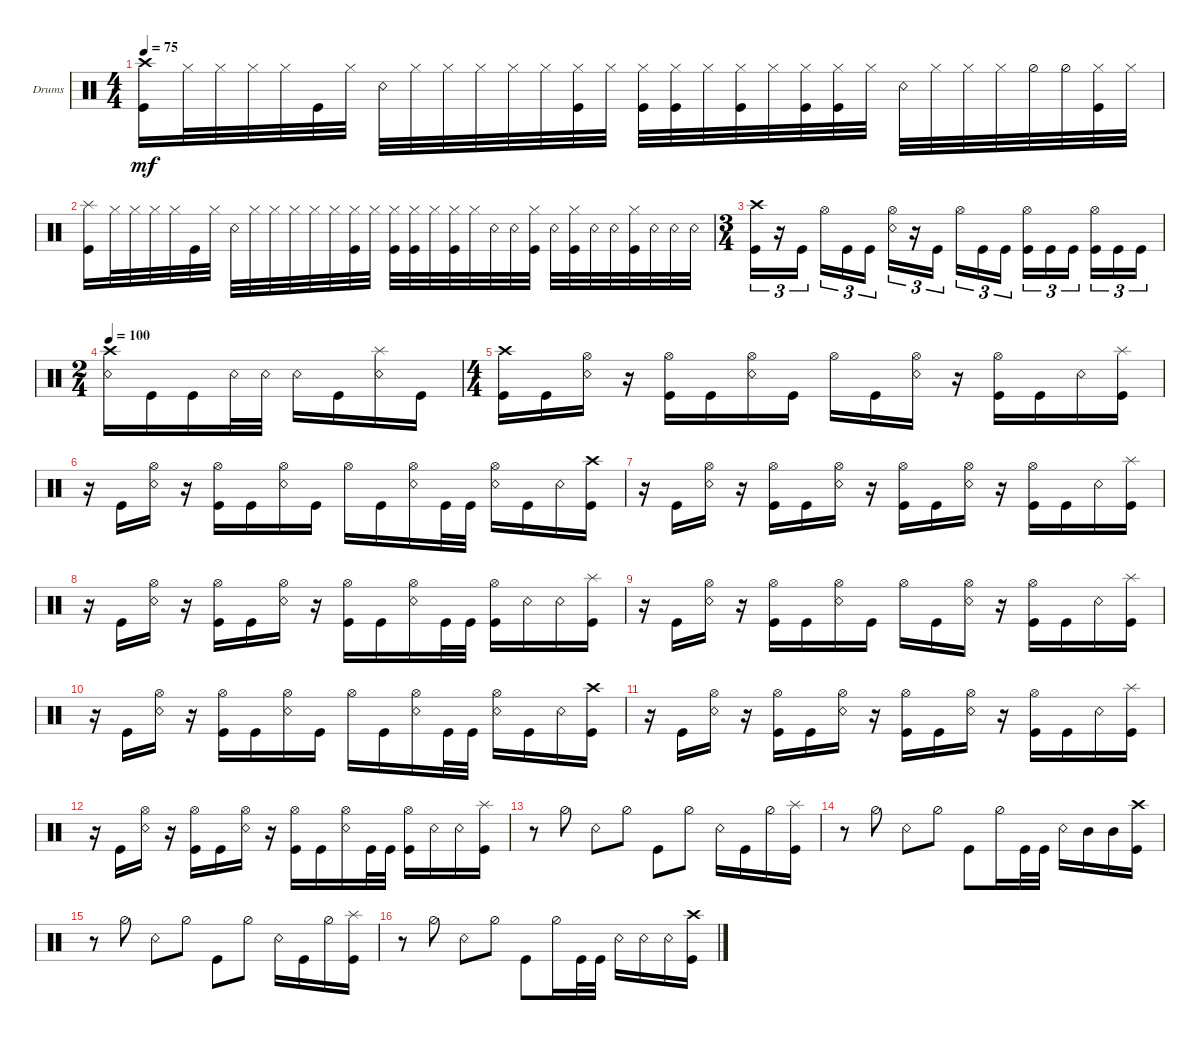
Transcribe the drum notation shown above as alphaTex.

\defaultSystemsLayout 4
\bracketExtendMode groupsimilarinstruments
\firstSystemTrackNameOrientation horizontal
\otherSystemsTrackNameOrientation horizontal
\track ("Drumkit" "Drums") {instrument percussion}
\staff {score}
\articulation defaults
\ts (4 4)
\tempo 75
\clef neutral
\ks c
("Crash high (hit)" "Kick (hit)").16{dy mf} "Hi-Hat (closed)".32 "Hi-Hat (closed)".32 "Hi-Hat (closed)".32 "Hi-Hat (closed)".32 "Kick (hit)".32 "Hi-Hat (closed)".32 "Snare (rim shot)".32 "Hi-Hat (closed)".32 "Hi-Hat (closed)".32 "Hi-Hat (closed)".32 "Hi-Hat (closed)".32 "Hi-Hat (closed)".32 ("Hi-Hat (closed)" "Kick (hit)").32 "Hi-Hat (closed)".32 ("Hi-Hat (closed)" "Kick (hit)").32 ("Hi-Hat (closed)" "Kick (hit)").32 "Hi-Hat (closed)".32 ("Hi-Hat (closed)" "Kick (hit)").32 "Hi-Hat (closed)".32 ("Hi-Hat (closed)" "Kick (hit)").32 ("Hi-Hat (closed)" "Kick (hit)").32 "Hi-Hat (closed)".32 "Snare (rim shot)".32 "Hi-Hat (closed)".32 "Hi-Hat (closed)".32 "Hi-Hat (closed)".32 "Hi-Hat (half)".32 "Hi-Hat (half)".32 ("Hi-Hat (closed)" "Kick (hit)").32 "Hi-Hat (closed)".32 |
("Kick (hit)" "Splash (hit)").16 "Hi-Hat (closed)".32 "Hi-Hat (closed)".32 "Hi-Hat (closed)".32 "Hi-Hat (closed)".32 "Kick (hit)".32 "Hi-Hat (closed)".32 "Snare (rim shot)".32 "Hi-Hat (closed)".32 "Hi-Hat (closed)".32 "Hi-Hat (closed)".32 "Hi-Hat (closed)".32 "Hi-Hat (closed)".32 ("Hi-Hat (closed)" "Kick (hit)").32 "Hi-Hat (closed)".32 ("Hi-Hat (closed)" "Kick (hit)").32 ("Hi-Hat (closed)" "Kick (hit)").32 "Hi-Hat (closed)".32 ("Hi-Hat (closed)" "Kick (hit)").32 "Hi-Hat (closed)".32 "Snare (rim shot)".32 "Snare (rim shot)".32 ("Hi-Hat (closed)" "Kick (hit)").32 "Snare (rim shot)".32 ("Hi-Hat (closed)" "Kick (hit)").32 "Snare (rim shot)".32 "Snare (rim shot)".32 ("Hi-Hat (closed)" "Kick (hit)").32 "Snare (rim shot)".32 "Snare (rim shot)".32 "Snare (rim shot)".32 |
\ts (3 4)
("Kick (hit)" "Crash high (hit)").16{tu (3 2)} r.16{tu (3 2)} "Kick (hit)".16{tu (3 2)} "Hi-Hat (open)".16{tu (3 2)} "Kick (hit)".16{tu (3 2)} "Kick (hit)".16{tu (3 2)} ("Snare (rim shot)" "Hi-Hat (open)").16{tu (3 2)} r.16{tu (3 2)} "Kick (hit)".16{tu (3 2)} "Hi-Hat (open)".16{tu (3 2)} "Kick (hit)".16{tu (3 2)} "Kick (hit)".16{tu (3 2)} ("Kick (hit)" "Hi-Hat (open)").16{tu (3 2)} "Kick (hit)".16{tu (3 2)} "Kick (hit)".16{tu (3 2)} ("Hi-Hat (open)" "Kick (hit)").16{tu (3 2)} "Kick (hit)".16{tu (3 2)} "Kick (hit)".16{tu (3 2)} |
\ts (2 4)
\tempo 100
("Snare (rim shot)" "Crash high (hit)").16 "Kick (hit)".16 "Kick (hit)".16 "Snare (rim shot)".32 "Snare (rim shot)".32 "Snare (rim shot)".16 "Kick (hit)".16 ("Snare (rim shot)" "Splash (hit)").16 "Kick (hit)".16 |
\ts (4 4)
("Kick (hit)" "Crash high (hit)").16 "Kick (hit)".16 ("Snare (rim shot)" "Hi-Hat (open)").16 r.16 ("Kick (hit)" "Hi-Hat (open)").16 "Kick (hit)".16 ("Hi-Hat (open)" "Snare (rim shot)").16 "Kick (hit)".16 "Hi-Hat (open)".16 "Kick (hit)".16 ("Snare (rim shot)" "Hi-Hat (open)").16 r.16 ("Hi-Hat (open)" "Kick (hit)").16 "Kick (hit)".16 "Snare (rim shot)".16 ("Kick (hit)" "Splash (hit)").16 |
r.16 "Kick (hit)".16 ("Snare (rim shot)" "Hi-Hat (open)").16 r.16 ("Kick (hit)" "Hi-Hat (open)").16 "Kick (hit)".16 ("Snare (rim shot)" "Hi-Hat (open)").16 "Kick (hit)".16 "Hi-Hat (open)".16 "Kick (hit)".16 ("Snare (rim shot)" "Hi-Hat (open)").16 "Kick (hit)".32 "Kick (hit)".32 ("Snare (rim shot)" "Hi-Hat (open)").16 "Kick (hit)".16 "Snare (rim shot)".16 ("Kick (hit)" "Crash high (hit)").16 |
r.16 "Kick (hit)".16 ("Snare (rim shot)" "Hi-Hat (open)").16 r.16 ("Kick (hit)" "Hi-Hat (open)").16 "Kick (hit)".16 ("Snare (rim shot)" "Hi-Hat (open)").16 r.16 ("Kick (hit)" "Hi-Hat (open)").16 "Kick (hit)".16 ("Snare (rim shot)" "Hi-Hat (open)").16 r.16 ("Kick (hit)" "Hi-Hat (open)").16 "Kick (hit)".16 "Snare (rim shot)".16 ("Kick (hit)" "Splash (hit)").16 |
r.16 "Kick (hit)".16 ("Snare (rim shot)" "Hi-Hat (open)").16 r.16 ("Kick (hit)" "Hi-Hat (open)").16 "Kick (hit)".16 ("Snare (rim shot)" "Hi-Hat (open)").16 r.16 ("Kick (hit)" "Hi-Hat (open)").16 "Kick (hit)".16 ("Snare (rim shot)" "Hi-Hat (open)").16 "Kick (hit)".32 "Kick (hit)".32 ("Kick (hit)" "Hi-Hat (open)").16 "Snare (rim shot)".16 "Snare (rim shot)".16 ("Kick (hit)" "Splash (hit)").16 |
r.16 "Kick (hit)".16 ("Snare (rim shot)" "Hi-Hat (open)").16 r.16 ("Kick (hit)" "Hi-Hat (open)").16 "Kick (hit)".16 ("Hi-Hat (open)" "Snare (rim shot)").16 "Kick (hit)".16 "Hi-Hat (open)".16 "Kick (hit)".16 ("Snare (rim shot)" "Hi-Hat (open)").16 r.16 ("Hi-Hat (open)" "Kick (hit)").16 "Kick (hit)".16 "Snare (rim shot)".16 ("Kick (hit)" "Splash (hit)").16 |
r.16 "Kick (hit)".16 ("Snare (rim shot)" "Hi-Hat (open)").16 r.16 ("Kick (hit)" "Hi-Hat (open)").16 "Kick (hit)".16 ("Snare (rim shot)" "Hi-Hat (open)").16 "Kick (hit)".16 "Hi-Hat (open)".16 "Kick (hit)".16 ("Snare (rim shot)" "Hi-Hat (open)").16 "Kick (hit)".32 "Kick (hit)".32 ("Snare (rim shot)" "Hi-Hat (open)").16 "Kick (hit)".16 "Snare (rim shot)".16 ("Kick (hit)" "Crash high (hit)").16 |
r.16 "Kick (hit)".16 ("Snare (rim shot)" "Hi-Hat (open)").16 r.16 ("Kick (hit)" "Hi-Hat (open)").16 "Kick (hit)".16 ("Snare (rim shot)" "Hi-Hat (open)").16 r.16 ("Kick (hit)" "Hi-Hat (open)").16 "Kick (hit)".16 ("Snare (rim shot)" "Hi-Hat (open)").16 r.16 ("Kick (hit)" "Hi-Hat (open)").16 "Kick (hit)".16 "Snare (rim shot)".16 ("Kick (hit)" "Splash (hit)").16 |
r.16 "Kick (hit)".16 ("Snare (rim shot)" "Hi-Hat (open)").16 r.16 ("Kick (hit)" "Hi-Hat (open)").16 "Kick (hit)".16 ("Snare (rim shot)" "Hi-Hat (open)").16 r.16 ("Kick (hit)" "Hi-Hat (open)").16 "Kick (hit)".16 ("Snare (rim shot)" "Hi-Hat (open)").16 "Kick (hit)".32 "Kick (hit)".32 ("Kick (hit)" "Hi-Hat (open)").16 "Snare (rim shot)".16 "Snare (rim shot)".16 ("Kick (hit)" "Splash (hit)").16 |
r.8 "Hi-Hat (half)".8 "Snare (rim shot)".8 "Hi-Hat (half)".8 "Kick (hit)".8 "Hi-Hat (half)".8 "Snare (rim shot)".16 "Kick (hit)".16 "Hi-Hat (half)".16 ("Kick (hit)" "Splash (hit)").16 |
r.8 "Hi-Hat (half)".8 "Snare (rim shot)".8 "Hi-Hat (half)".8 "Kick (hit)".8 "Hi-Hat (half)".16 "Kick (hit)".32 "Kick (hit)".32 "Snare (rim shot)".16 "Mid Tom (hit)".16 "Mid Tom (hit)".16 ("Kick (hit)" "Crash high (hit)").16 |
r.8 "Hi-Hat (half)".8 "Snare (rim shot)".8 "Hi-Hat (half)".8 "Kick (hit)".8 "Hi-Hat (half)".8 "Snare (rim shot)".16 "Kick (hit)".16 "Hi-Hat (half)".16 ("Kick (hit)" "Splash (hit)").16 |
r.8 "Hi-Hat (half)".8 "Snare (rim shot)".8 "Hi-Hat (half)".8 "Kick (hit)".8 "Hi-Hat (half)".16 "Kick (hit)".32 "Kick (hit)".32 "Snare (rim shot)".16 "Snare (rim shot)".16 "Snare (rim shot)".16 ("Kick (hit)" "Crash high (hit)").16
